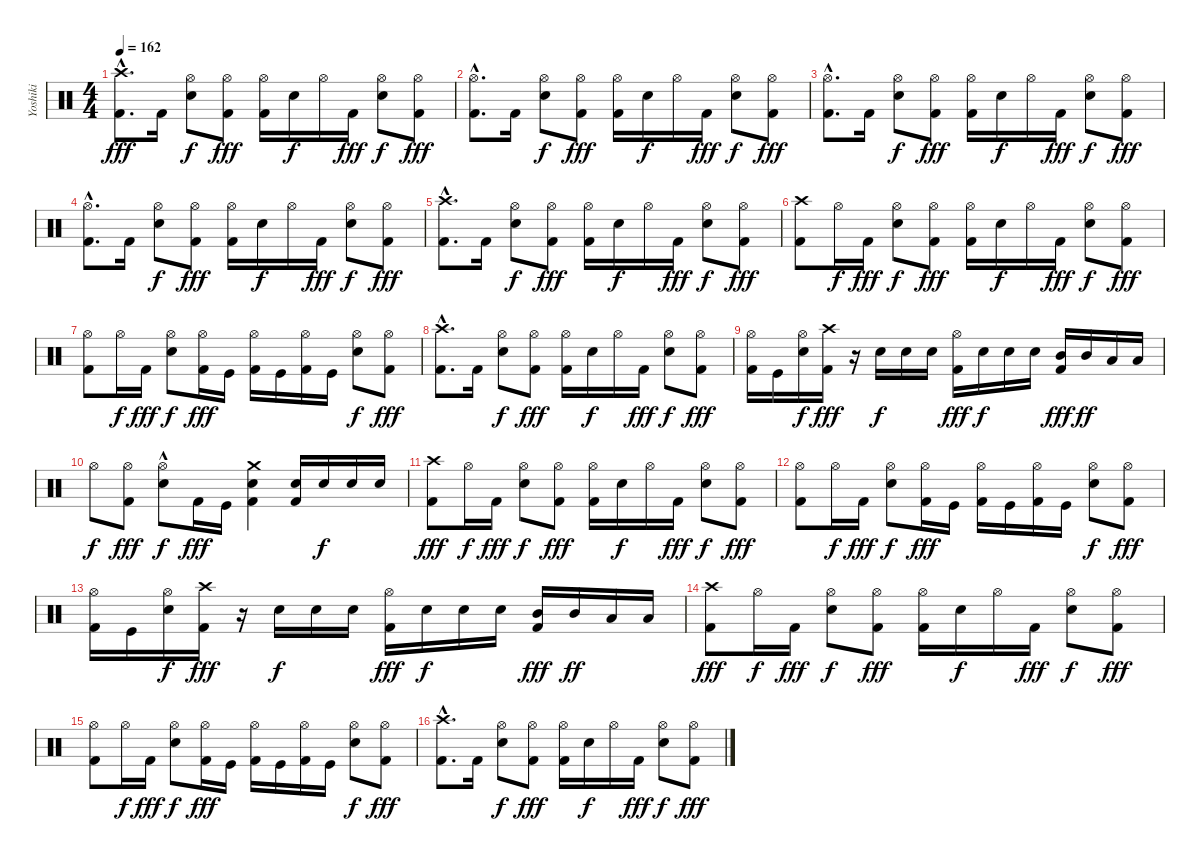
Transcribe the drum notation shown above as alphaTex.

\track ("Yoshiki" "Yoshiki") {instrument percussion}
\staff {score}
\articulation defaults
\ts (4 4)
\tempo 162
\clef neutral
\ks c
("Crash high (hit)"{hac} "Kick (hit) 2"{hac}).8{d dy fff} "Kick (hit) 2".16 ("Hi-Hat (open)" "Electric Snare (hit)").8{dy f} ("Hi-Hat (open)" "Kick (hit) 2").8{dy fff} ("Hi-Hat (open)" "Kick (hit) 2").16 "Electric Snare (hit)".16{dy f} "Hi-Hat (open)".16 "Kick (hit) 2".16{dy fff} ("Hi-Hat (open)" "Electric Snare (hit)").8{dy f} ("Hi-Hat (open)" "Kick (hit) 2").8{dy fff} |
("Hi-Hat (open)"{hac} "Kick (hit) 2"{hac}).8{d} "Kick (hit) 2".16 ("Hi-Hat (open)" "Electric Snare (hit)").8{dy f} ("Hi-Hat (open)" "Kick (hit) 2").8{dy fff} ("Hi-Hat (open)" "Kick (hit) 2").16 "Electric Snare (hit)".16{dy f} "Hi-Hat (open)".16 "Kick (hit) 2".16{dy fff} ("Hi-Hat (open)" "Electric Snare (hit)").8{dy f} ("Hi-Hat (open)" "Kick (hit) 2").8{dy fff} |
("Hi-Hat (open)"{hac} "Kick (hit) 2"{hac}).8{d} "Kick (hit) 2".16 ("Hi-Hat (open)" "Electric Snare (hit)").8{dy f} ("Hi-Hat (open)" "Kick (hit) 2").8{dy fff} ("Hi-Hat (open)" "Kick (hit) 2").16 "Electric Snare (hit)".16{dy f} "Hi-Hat (open)".16 "Kick (hit) 2".16{dy fff} ("Hi-Hat (open)" "Electric Snare (hit)").8{dy f} ("Hi-Hat (open)" "Kick (hit) 2").8{dy fff} |
("Hi-Hat (open)"{hac} "Kick (hit) 2"{hac}).8{d} "Kick (hit) 2".16 ("Hi-Hat (open)" "Electric Snare (hit)").8{dy f} ("Hi-Hat (open)" "Kick (hit) 2").8{dy fff} ("Hi-Hat (open)" "Kick (hit) 2").16 "Electric Snare (hit)".16{dy f} "Hi-Hat (open)".16 "Kick (hit) 2".16{dy fff} ("Hi-Hat (open)" "Electric Snare (hit)").8{dy f} ("Hi-Hat (open)" "Kick (hit) 2").8{dy fff} |
("Crash high (hit)"{hac} "Kick (hit) 2"{hac}).8{d} "Kick (hit) 2".16 ("Hi-Hat (open)" "Electric Snare (hit)").8{dy f} ("Hi-Hat (open)" "Kick (hit) 2").8{dy fff} ("Hi-Hat (open)" "Kick (hit) 2").16 "Electric Snare (hit)".16{dy f} "Hi-Hat (open)".16 "Kick (hit) 2".16{dy fff} ("Hi-Hat (open)" "Electric Snare (hit)").8{dy f} ("Hi-Hat (open)" "Kick (hit) 2").8{dy fff} |
("Crash high (hit)" "Kick (hit) 2").8 "Hi-Hat (open)".16{dy f} "Kick (hit) 2".16{dy fff} ("Hi-Hat (open)" "Electric Snare (hit)").8{dy f} ("Hi-Hat (open)" "Kick (hit) 2").8{dy fff} ("Hi-Hat (open)" "Kick (hit) 2").16 "Electric Snare (hit)".16{dy f} "Hi-Hat (open)".16 "Kick (hit) 2".16{dy fff} ("Hi-Hat (open)" "Electric Snare (hit)").8{dy f} ("Hi-Hat (open)" "Kick (hit) 2").8{dy fff} |
("Hi-Hat (open)" "Kick (hit) 2").8 "Hi-Hat (open)".16{dy f} "Kick (hit) 2".16{dy fff} ("Hi-Hat (open)" "Electric Snare (hit)").8{dy f} ("Hi-Hat (open)" "Kick (hit) 2").16{dy fff} "Kick (hit)".16 ("Hi-Hat (open)" "Kick (hit) 2").16 "Kick (hit)".16 ("Hi-Hat (open)" "Kick (hit) 2").16 "Kick (hit)".16 ("Hi-Hat (open)" "Electric Snare (hit)").8{dy f} ("Hi-Hat (open)" "Kick (hit) 2").8{dy fff} |
("Crash high (hit)"{hac} "Kick (hit) 2"{hac}).8{d} "Kick (hit) 2".16 ("Hi-Hat (open)" "Electric Snare (hit)").8{dy f} ("Hi-Hat (open)" "Kick (hit) 2").8{dy fff} ("Hi-Hat (open)" "Kick (hit) 2").16 "Electric Snare (hit)".16{dy f} "Hi-Hat (open)".16 "Kick (hit) 2".16{dy fff} ("Hi-Hat (open)" "Electric Snare (hit)").8{dy f} ("Hi-Hat (open)" "Kick (hit) 2").8{dy fff} |
("Hi-Hat (open)" "Kick (hit) 2").16 "Kick (hit)".16 ("Hi-Hat (open)" "Electric Snare (hit)").16{dy f} ("Crash high (hit)" "Kick (hit) 2").16{dy fff} r.16 "Electric Snare (hit)".16{dy f} "Electric Snare (hit)".16 "Electric Snare (hit)".16 ("Hi-Hat (open)" "Kick (hit) 2").16{dy fff} "Electric Snare (hit)".16{dy f} "Electric Snare (hit)".16 "Electric Snare (hit)".16 ("Mid Tom (hit)" "Kick (hit) 2").16{dy fff} "Mid Tom (hit)".16{dy ff} "Low Tom (hit)".16 "Low Tom (hit)".16 |
"Hi-Hat (open)".8{dy f} ("Hi-Hat (open)" "Kick (hit) 2").8{dy fff} ("Hi-Hat (open)"{hac} "Electric Snare (hit)").8{dy f} "Kick (hit) 2".16{dy fff} "Kick (hit)".16 ("Crash medium (hit)" "Electric Snare (hit)" "Kick (hit) 2").4 ("Electric Snare (hit)" "Kick (hit) 2").16 "Electric Snare (hit)".16{dy f} "Electric Snare (hit)".16 "Electric Snare (hit)".16 |
("Crash high (hit)" "Kick (hit) 2").8{dy fff} "Hi-Hat (open)".16{dy f} "Kick (hit) 2".16{dy fff} ("Hi-Hat (open)" "Electric Snare (hit)").8{dy f} ("Hi-Hat (open)" "Kick (hit) 2").8{dy fff} ("Hi-Hat (open)" "Kick (hit) 2").16 "Electric Snare (hit)".16{dy f} "Hi-Hat (open)".16 "Kick (hit) 2".16{dy fff} ("Hi-Hat (open)" "Electric Snare (hit)").8{dy f} ("Hi-Hat (open)" "Kick (hit) 2").8{dy fff} |
("Hi-Hat (open)" "Kick (hit) 2").8 "Hi-Hat (open)".16{dy f} "Kick (hit) 2".16{dy fff} ("Hi-Hat (open)" "Electric Snare (hit)").8{dy f} ("Hi-Hat (open)" "Kick (hit) 2").16{dy fff} "Kick (hit)".16 ("Hi-Hat (open)" "Kick (hit) 2").16 "Kick (hit)".16 ("Hi-Hat (open)" "Kick (hit) 2").16 "Kick (hit)".16 ("Hi-Hat (open)" "Electric Snare (hit)").8{dy f} ("Hi-Hat (open)" "Kick (hit) 2").8{dy fff} |
("Hi-Hat (open)" "Kick (hit) 2").16 "Kick (hit)".16 ("Hi-Hat (open)" "Electric Snare (hit)").16{dy f} ("Crash high (hit)" "Kick (hit) 2").16{dy fff} r.16 "Electric Snare (hit)".16{dy f} "Electric Snare (hit)".16 "Electric Snare (hit)".16 ("Hi-Hat (open)" "Kick (hit) 2").16{dy fff} "Electric Snare (hit)".16{dy f} "Electric Snare (hit)".16 "Electric Snare (hit)".16 ("Mid Tom (hit)" "Kick (hit) 2").16{dy fff} "Mid Tom (hit)".16{dy ff} "Low Tom (hit)".16 "Low Tom (hit)".16 |
("Crash high (hit)" "Kick (hit) 2").8{dy fff} "Hi-Hat (open)".16{dy f} "Kick (hit) 2".16{dy fff} ("Hi-Hat (open)" "Electric Snare (hit)").8{dy f} ("Hi-Hat (open)" "Kick (hit) 2").8{dy fff} ("Hi-Hat (open)" "Kick (hit) 2").16 "Electric Snare (hit)".16{dy f} "Hi-Hat (open)".16 "Kick (hit) 2".16{dy fff} ("Hi-Hat (open)" "Electric Snare (hit)").8{dy f} ("Hi-Hat (open)" "Kick (hit) 2").8{dy fff} |
("Hi-Hat (open)" "Kick (hit) 2").8 "Hi-Hat (open)".16{dy f} "Kick (hit) 2".16{dy fff} ("Hi-Hat (open)" "Electric Snare (hit)").8{dy f} ("Hi-Hat (open)" "Kick (hit) 2").16{dy fff} "Kick (hit)".16 ("Hi-Hat (open)" "Kick (hit) 2").16 "Kick (hit)".16 ("Hi-Hat (open)" "Kick (hit) 2").16 "Kick (hit)".16 ("Hi-Hat (open)" "Electric Snare (hit)").8{dy f} ("Hi-Hat (open)" "Kick (hit) 2").8{dy fff} |
("Crash high (hit)"{hac} "Kick (hit) 2"{hac}).8{d} "Kick (hit) 2".16 ("Hi-Hat (open)" "Electric Snare (hit)").8{dy f} ("Hi-Hat (open)" "Kick (hit) 2").8{dy fff} ("Hi-Hat (open)" "Kick (hit) 2").16 "Electric Snare (hit)".16{dy f} "Hi-Hat (open)".16 "Kick (hit) 2".16{dy fff} ("Hi-Hat (open)" "Electric Snare (hit)").8{dy f} ("Hi-Hat (open)" "Kick (hit) 2").8{dy fff}
